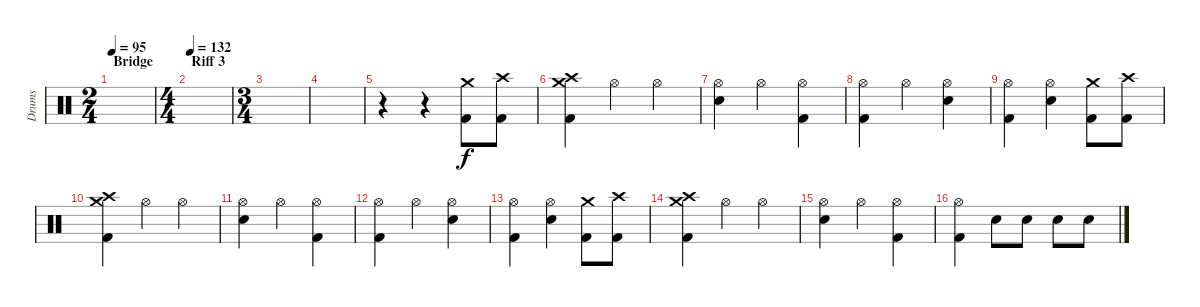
\track ("Drums" "Drums") {instrument percussion}
\staff {score}
\articulation defaults
\ts (2 4)
\section ("" "Bridge")
\tempo 95
\clef neutral
\ks c
|
\ts (4 4)
\section ("" "Riff 3")
\tempo 132
|
\ts (3 4)
|
|
r.4 r.4 ("Crash medium (hit)" "Kick (hit) 2").8 ("Crash high (hit)" "Kick (hit) 2").8 |
("Crash high (hit)" "Crash medium (hit)" "Kick (hit) 2").4 "Hi-Hat (open)".4 "Hi-Hat (open)".4 |
("Hi-Hat (open)" "Electric Snare (hit)").4 "Hi-Hat (open)".4 ("Hi-Hat (open)" "Kick (hit) 2").4 |
("Hi-Hat (open)" "Kick (hit) 2").4 "Hi-Hat (open)".4 ("Hi-Hat (open)" "Electric Snare (hit)").4 |
("Hi-Hat (open)" "Kick (hit) 2").4 ("Hi-Hat (open)" "Electric Snare (hit)").4 ("Crash medium (hit)" "Kick (hit) 2").8 ("Crash high (hit)" "Kick (hit) 2").8 |
("Crash high (hit)" "Crash medium (hit)" "Kick (hit) 2").4 "Hi-Hat (open)".4 "Hi-Hat (open)".4 |
("Hi-Hat (open)" "Electric Snare (hit)").4 "Hi-Hat (open)".4 ("Hi-Hat (open)" "Kick (hit) 2").4 |
("Hi-Hat (open)" "Kick (hit) 2").4 "Hi-Hat (open)".4 ("Hi-Hat (open)" "Electric Snare (hit)").4 |
("Hi-Hat (open)" "Kick (hit) 2").4 ("Hi-Hat (open)" "Electric Snare (hit)").4 ("Crash medium (hit)" "Kick (hit) 2").8 ("Crash high (hit)" "Kick (hit) 2").8 |
("Crash high (hit)" "Crash medium (hit)" "Kick (hit) 2").4 "Hi-Hat (open)".4 "Hi-Hat (open)".4 |
("Hi-Hat (open)" "Electric Snare (hit)").4 "Hi-Hat (open)".4 ("Hi-Hat (open)" "Kick (hit) 2").4 |
("Hi-Hat (open)" "Kick (hit) 2").4 "Electric Snare (hit)".8 "Electric Snare (hit)".8 "Electric Snare (hit)".8 "Electric Snare (hit)".8
